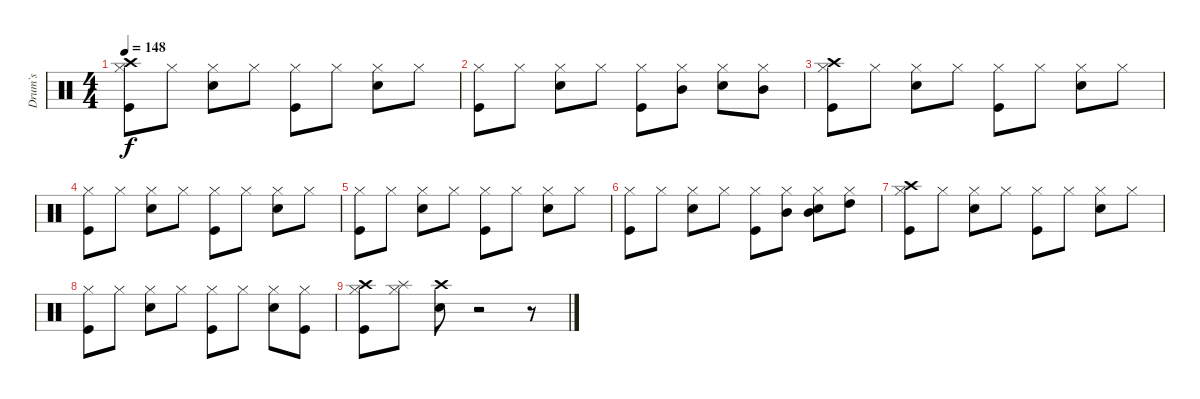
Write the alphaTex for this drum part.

\track ("Drum`s" "Drum`s") {instrument percussion}
\staff {score}
\articulation defaults
\ts (4 4)
\tempo 148
\clef neutral
\ks c
("Crash high (hit)" "Hi-Hat (closed)" "Kick (hit)").8{dy f} "Hi-Hat (closed)".8 ("Hi-Hat (closed)" "Snare (hit) 2").8 "Hi-Hat (closed)".8 ("Hi-Hat (closed)" "Kick (hit)").8 "Hi-Hat (closed)".8 ("Hi-Hat (closed)" "Snare (hit) 2").8 "Hi-Hat (closed)".8 |
("Hi-Hat (closed)" "Kick (hit)").8 "Hi-Hat (closed)".8 ("Hi-Hat (closed)" "Snare (hit) 2").8 "Hi-Hat (closed)".8 ("Hi-Hat (closed)" "Kick (hit)").8 ("Mid Tom (hit)" "Hi-Hat (closed)").8 ("Hi-Hat (closed)" "Snare (hit) 2").8 ("Mid Tom (hit)" "Hi-Hat (closed)").8 |
("Crash high (hit)" "Hi-Hat (closed)" "Kick (hit)").8 "Hi-Hat (closed)".8 ("Hi-Hat (closed)" "Snare (hit) 2").8 "Hi-Hat (closed)".8 ("Hi-Hat (closed)" "Kick (hit)").8 "Hi-Hat (closed)".8 ("Hi-Hat (closed)" "Snare (hit) 2").8 "Hi-Hat (closed)".8 |
("Hi-Hat (closed)" "Kick (hit)").8 "Hi-Hat (closed)".8 ("Hi-Hat (closed)" "Snare (hit) 2").8 "Hi-Hat (closed)".8 ("Hi-Hat (closed)" "Kick (hit)").8 "Hi-Hat (closed)".8 ("Hi-Hat (closed)" "Snare (hit) 2").8 "Hi-Hat (closed)".8 |
("Hi-Hat (closed)" "Kick (hit)").8 "Hi-Hat (closed)".8 ("Hi-Hat (closed)" "Snare (hit) 2").8 "Hi-Hat (closed)".8 ("Hi-Hat (closed)" "Kick (hit)").8 "Hi-Hat (closed)".8 ("Hi-Hat (closed)" "Snare (hit) 2").8 "Hi-Hat (closed)".8 |
("Hi-Hat (closed)" "Kick (hit)").8 "Hi-Hat (closed)".8 ("Hi-Hat (closed)" "Snare (hit) 2").8 "Hi-Hat (closed)".8 ("Hi-Hat (closed)" "Kick (hit)").8 ("Mid Tom (hit)" "Hi-Hat (closed)").8 ("Mid Tom (hit)" "Hi-Hat (closed)" "Snare (hit) 2").8 ("High Tom (hit)" "Hi-Hat (closed)").8 |
("Crash high (hit)" "Hi-Hat (closed)" "Kick (hit)").8 "Hi-Hat (closed)".8 ("Hi-Hat (closed)" "Snare (hit) 2").8 "Hi-Hat (closed)".8 ("Hi-Hat (closed)" "Kick (hit)").8 "Hi-Hat (closed)".8 ("Hi-Hat (closed)" "Snare (hit) 2").8 "Hi-Hat (closed)".8 |
("Hi-Hat (closed)" "Kick (hit)").8 "Hi-Hat (closed)".8 ("Hi-Hat (closed)" "Snare (hit) 2").8 "Hi-Hat (closed)".8 ("Hi-Hat (closed)" "Kick (hit)").8 "Hi-Hat (closed)".8 ("Hi-Hat (closed)" "Snare (hit) 2").8 ("Kick (hit)" "Hi-Hat (closed)").8 |
("Crash high (hit)" "Hi-Hat (closed)" "Kick (hit)").8 ("Splash (hit)" "Hi-Hat (closed)").8 ("Crash high (hit)" "Snare (hit) 2").8 r.2 r.8
